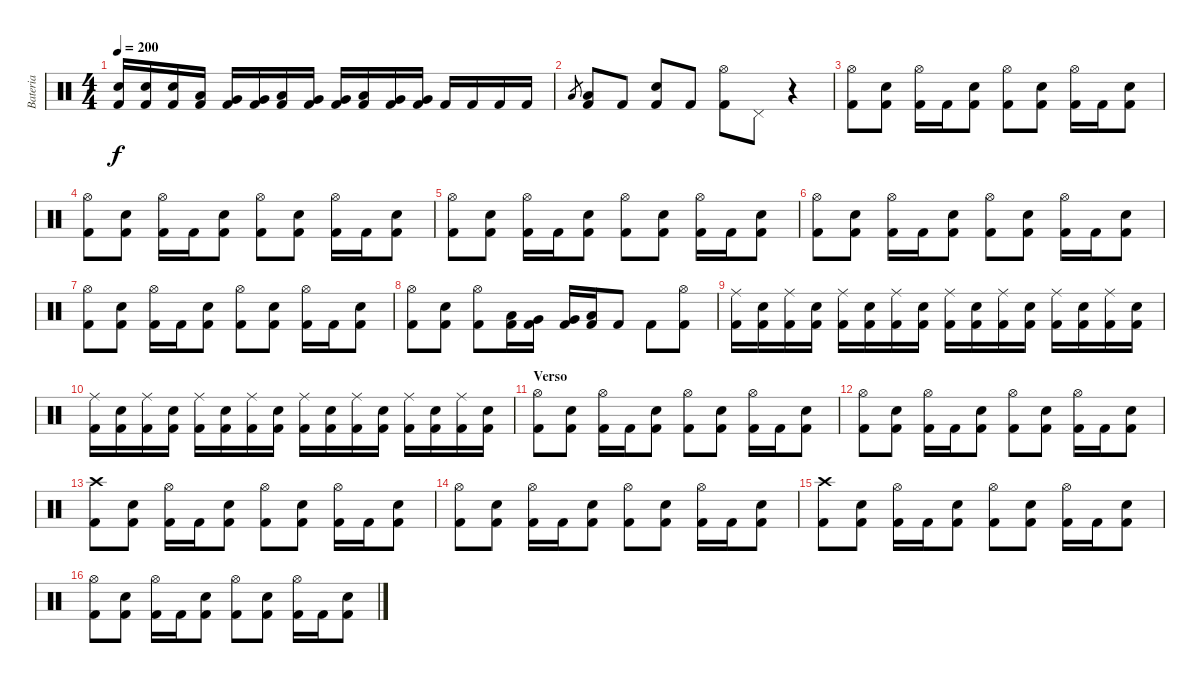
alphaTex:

\track ("Bateria" "Bateria") {instrument percussion}
\staff {score}
\articulation defaults
\ts (4 4)
\tempo 200
\clef neutral
\ks c
("Electric Snare (hit)" "Kick (hit) 2").16{dy f} ("Electric Snare (hit)" "Kick (hit) 2").16 ("Electric Snare (hit)" "Kick (hit) 2").16 ("Low Tom (hit)" "Kick (hit) 2").16 ("Very Low Tom (hit)" "Kick (hit) 2").16 ("Very Low Tom (hit)" "Kick (hit) 2").16 ("Low Tom (hit)" "Kick (hit) 2").16 ("Very Low Tom (hit)" "Kick (hit) 2").16 ("Very Low Tom (hit)" "Kick (hit) 2").16 ("Low Tom (hit)" "Kick (hit) 2").16 ("Very Low Tom (hit)" "Kick (hit) 2").16 ("Very Low Tom (hit)" "Kick (hit) 2").16 "Kick (hit) 2".16 "Kick (hit) 2".16 "Kick (hit) 2".16 "Kick (hit) 2".16 |
"Low Tom (hit)".8{gr} ("Low Tom (hit)" "Kick (hit) 2").8 "Kick (hit) 2".8 ("Electric Snare (hit)" "Kick (hit) 2").8 "Kick (hit) 2".8 ("Hi-Hat (open)" "Kick (hit) 2").8 "Pedal Hi-Hat (hit)".8 r.4 |
("Hi-Hat (open)" "Kick (hit) 2").8 ("Electric Snare (hit)" "Kick (hit) 2").8 ("Hi-Hat (open)" "Kick (hit) 2").16 "Kick (hit) 2".16 ("Electric Snare (hit)" "Kick (hit) 2").8 ("Hi-Hat (open)" "Kick (hit) 2").8 ("Electric Snare (hit)" "Kick (hit) 2").8 ("Hi-Hat (open)" "Kick (hit) 2").16 "Kick (hit) 2".16 ("Electric Snare (hit)" "Kick (hit) 2").8 |
("Hi-Hat (open)" "Kick (hit) 2").8 ("Electric Snare (hit)" "Kick (hit) 2").8 ("Hi-Hat (open)" "Kick (hit) 2").16 "Kick (hit) 2".16 ("Electric Snare (hit)" "Kick (hit) 2").8 ("Hi-Hat (open)" "Kick (hit) 2").8 ("Electric Snare (hit)" "Kick (hit) 2").8 ("Hi-Hat (open)" "Kick (hit) 2").16 "Kick (hit) 2".16 ("Electric Snare (hit)" "Kick (hit) 2").8 |
("Hi-Hat (open)" "Kick (hit) 2").8 ("Electric Snare (hit)" "Kick (hit) 2").8 ("Hi-Hat (open)" "Kick (hit) 2").16 "Kick (hit) 2".16 ("Electric Snare (hit)" "Kick (hit) 2").8 ("Hi-Hat (open)" "Kick (hit) 2").8 ("Electric Snare (hit)" "Kick (hit) 2").8 ("Hi-Hat (open)" "Kick (hit) 2").16 "Kick (hit) 2".16 ("Electric Snare (hit)" "Kick (hit) 2").8 |
("Hi-Hat (open)" "Kick (hit) 2").8 ("Electric Snare (hit)" "Kick (hit) 2").8 ("Hi-Hat (open)" "Kick (hit) 2").16 "Kick (hit) 2".16 ("Electric Snare (hit)" "Kick (hit) 2").8 ("Hi-Hat (open)" "Kick (hit) 2").8 ("Electric Snare (hit)" "Kick (hit) 2").8 ("Hi-Hat (open)" "Kick (hit) 2").16 "Kick (hit) 2".16 ("Electric Snare (hit)" "Kick (hit) 2").8 |
("Hi-Hat (open)" "Kick (hit) 2").8 ("Electric Snare (hit)" "Kick (hit) 2").8 ("Hi-Hat (open)" "Kick (hit) 2").16 "Kick (hit) 2".16 ("Electric Snare (hit)" "Kick (hit) 2").8 ("Hi-Hat (open)" "Kick (hit) 2").8 ("Electric Snare (hit)" "Kick (hit) 2").8 ("Hi-Hat (open)" "Kick (hit) 2").16 "Kick (hit) 2".16 ("Electric Snare (hit)" "Kick (hit) 2").8 |
("Hi-Hat (open)" "Kick (hit) 2").8 ("Electric Snare (hit)" "Kick (hit) 2").8 ("Hi-Hat (open)" "Kick (hit) 2").8 ("Low Tom (hit)" "Kick (hit) 2").16 ("Very Low Tom (hit)" "Kick (hit) 2").16 ("Very Low Tom (hit)" "Kick (hit) 2").16 ("Low Floor Tom (hit)" "Kick (hit) 2").16 "Kick (hit) 2".8 "Kick (hit) 2".8 ("Hi-Hat (open)" "Kick (hit) 2").8 |
("Ride (middle)" "Kick (hit) 2").16 ("Electric Snare (hit)" "Kick (hit) 2").16 ("Ride (middle)" "Kick (hit) 2").16 ("Electric Snare (hit)" "Kick (hit) 2").16 ("Ride (middle)" "Kick (hit) 2").16 ("Electric Snare (hit)" "Kick (hit) 2").16 ("Ride (middle)" "Kick (hit) 2").16 ("Electric Snare (hit)" "Kick (hit) 2").16 ("Ride (middle)" "Kick (hit) 2").16 ("Electric Snare (hit)" "Kick (hit) 2").16 ("Ride (middle)" "Kick (hit) 2").16 ("Electric Snare (hit)" "Kick (hit) 2").16 ("Ride (middle)" "Kick (hit) 2").16 ("Electric Snare (hit)" "Kick (hit) 2").16 ("Ride (middle)" "Kick (hit) 2").16 ("Electric Snare (hit)" "Kick (hit) 2").16 |
("Ride (middle)" "Kick (hit) 2").16 ("Electric Snare (hit)" "Kick (hit) 2").16 ("Ride (middle)" "Kick (hit) 2").16 ("Electric Snare (hit)" "Kick (hit) 2").16 ("Ride (middle)" "Kick (hit) 2").16 ("Electric Snare (hit)" "Kick (hit) 2").16 ("Ride (middle)" "Kick (hit) 2").16 ("Electric Snare (hit)" "Kick (hit) 2").16 ("Ride (middle)" "Kick (hit) 2").16 ("Electric Snare (hit)" "Kick (hit) 2").16 ("Ride (middle)" "Kick (hit) 2").16 ("Electric Snare (hit)" "Kick (hit) 2").16 ("Ride (middle)" "Kick (hit) 2").16 ("Electric Snare (hit)" "Kick (hit) 2").16 ("Ride (middle)" "Kick (hit) 2").16 ("Electric Snare (hit)" "Kick (hit) 2").16 |
\section ("" "Verso")
("Hi-Hat (open)" "Kick (hit) 2").8 ("Electric Snare (hit)" "Kick (hit) 2").8 ("Hi-Hat (open)" "Kick (hit) 2").16 "Kick (hit) 2".16 ("Electric Snare (hit)" "Kick (hit) 2").8 ("Hi-Hat (open)" "Kick (hit) 2").8 ("Electric Snare (hit)" "Kick (hit) 2").8 ("Hi-Hat (open)" "Kick (hit) 2").16 "Kick (hit) 2".16 ("Electric Snare (hit)" "Kick (hit) 2").8 |
("Hi-Hat (open)" "Kick (hit) 2").8 ("Electric Snare (hit)" "Kick (hit) 2").8 ("Hi-Hat (open)" "Kick (hit) 2").16 "Kick (hit) 2".16 ("Electric Snare (hit)" "Kick (hit) 2").8 ("Hi-Hat (open)" "Kick (hit) 2").8 ("Electric Snare (hit)" "Kick (hit) 2").8 ("Hi-Hat (open)" "Kick (hit) 2").16 "Kick (hit) 2".16 ("Electric Snare (hit)" "Kick (hit) 2").8 |
("Crash high (hit)" "Kick (hit) 2").8 ("Electric Snare (hit)" "Kick (hit) 2").8 ("Hi-Hat (open)" "Kick (hit) 2").16 "Kick (hit) 2".16 ("Electric Snare (hit)" "Kick (hit) 2").8 ("Hi-Hat (open)" "Kick (hit) 2").8 ("Electric Snare (hit)" "Kick (hit) 2").8 ("Hi-Hat (open)" "Kick (hit) 2").16 "Kick (hit) 2".16 ("Electric Snare (hit)" "Kick (hit) 2").8 |
("Hi-Hat (open)" "Kick (hit) 2").8 ("Electric Snare (hit)" "Kick (hit) 2").8 ("Hi-Hat (open)" "Kick (hit) 2").16 "Kick (hit) 2".16 ("Electric Snare (hit)" "Kick (hit) 2").8 ("Hi-Hat (open)" "Kick (hit) 2").8 ("Electric Snare (hit)" "Kick (hit) 2").8 ("Hi-Hat (open)" "Kick (hit) 2").16 "Kick (hit) 2".16 ("Electric Snare (hit)" "Kick (hit) 2").8 |
("Crash high (hit)" "Kick (hit) 2").8 ("Electric Snare (hit)" "Kick (hit) 2").8 ("Hi-Hat (open)" "Kick (hit) 2").16 "Kick (hit) 2".16 ("Electric Snare (hit)" "Kick (hit) 2").8 ("Hi-Hat (open)" "Kick (hit) 2").8 ("Electric Snare (hit)" "Kick (hit) 2").8 ("Hi-Hat (open)" "Kick (hit) 2").16 "Kick (hit) 2".16 ("Electric Snare (hit)" "Kick (hit) 2").8 |
("Hi-Hat (open)" "Kick (hit) 2").8 ("Electric Snare (hit)" "Kick (hit) 2").8 ("Hi-Hat (open)" "Kick (hit) 2").16 "Kick (hit) 2".16 ("Electric Snare (hit)" "Kick (hit) 2").8 ("Hi-Hat (open)" "Kick (hit) 2").8 ("Electric Snare (hit)" "Kick (hit) 2").8 ("Hi-Hat (open)" "Kick (hit) 2").16 "Kick (hit) 2".16 ("Electric Snare (hit)" "Kick (hit) 2").8
